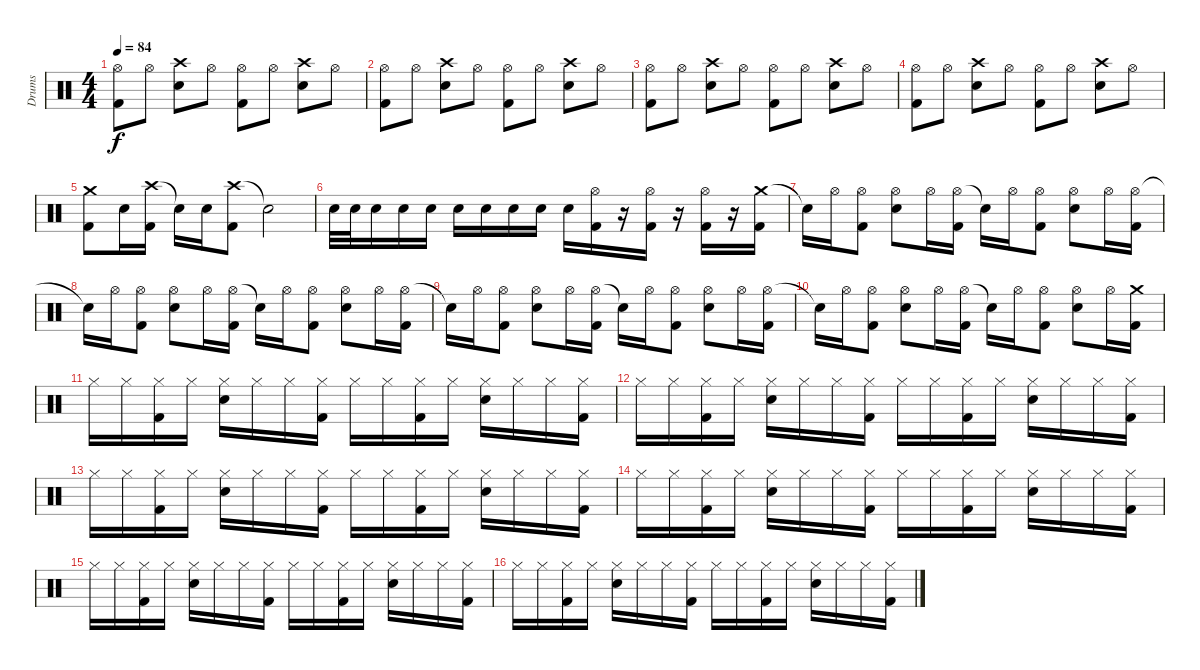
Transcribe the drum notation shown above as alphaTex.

\track ("Drums" "Drums") {instrument percussion}
\staff {score}
\articulation defaults
\ts (4 4)
\tempo 84
\clef neutral
\ks c
("Hi-Hat (open)" "Kick (hit) 2").8{dy f} "Hi-Hat (open)".8 ("Crash high (hit)" "Snare (hit) 2").8 "Hi-Hat (open)".8 ("Hi-Hat (open)" "Kick (hit) 2").8 "Hi-Hat (open)".8 ("Crash high (hit)" "Snare (hit) 2").8 "Hi-Hat (open)".8 |
("Hi-Hat (open)" "Kick (hit) 2").8 "Hi-Hat (open)".8 ("Crash high (hit)" "Snare (hit) 2").8 "Hi-Hat (open)".8 ("Hi-Hat (open)" "Kick (hit) 2").8 "Hi-Hat (open)".8 ("Crash high (hit)" "Snare (hit) 2").8 "Hi-Hat (open)".8 |
("Hi-Hat (open)" "Kick (hit) 2").8 "Hi-Hat (open)".8 ("Crash high (hit)" "Snare (hit) 2").8 "Hi-Hat (open)".8 ("Hi-Hat (open)" "Kick (hit) 2").8 "Hi-Hat (open)".8 ("Crash high (hit)" "Snare (hit) 2").8 "Hi-Hat (open)".8 |
("Hi-Hat (open)" "Kick (hit) 2").8 "Hi-Hat (open)".8 ("Crash high (hit)" "Snare (hit) 2").8 "Hi-Hat (open)".8 ("Hi-Hat (open)" "Kick (hit) 2").8 "Hi-Hat (open)".8 ("Crash high (hit)" "Snare (hit) 2").8 "Hi-Hat (open)".8 |
("Crash medium (hit)" "Kick (hit) 2").8 "Snare (hit) 2".16 ("Crash high (hit)" "Kick (hit) 2").16 "Snare (hit)"{t}.16 "Snare (hit) 2".16 ("Crash high (hit)" "Kick (hit) 2").8 "Snare (hit)"{t}.2 |
"Snare (hit) 2".32 "Snare (hit) 2".32 "Snare (hit) 2".16 "Snare (hit) 2".16 "Snare (hit) 2".16 "Snare (hit) 2".16 "Snare (hit) 2".16 "Snare (hit) 2".16 "Snare (hit) 2".16 "Snare (hit) 2".16 ("Hi-Hat (open)" "Kick (hit) 2").16 r.16 ("Hi-Hat (open)" "Kick (hit) 2").16 r.16 ("Hi-Hat (open)" "Kick (hit) 2").16 r.16 ("Crash medium (hit)" "Kick (hit) 2").16 |
"Snare (hit)"{t}.16 "Hi-Hat (open)".16 ("Hi-Hat (open)" "Kick (hit) 2").8 ("Hi-Hat (open)" "Snare (hit) 2").8 "Hi-Hat (open)".16 ("Hi-Hat (open)" "Kick (hit) 2").16 "Snare (hit)"{t}.16 "Hi-Hat (open)".16 ("Hi-Hat (open)" "Kick (hit) 2").8 ("Hi-Hat (open)" "Snare (hit) 2").8 "Hi-Hat (open)".16 ("Hi-Hat (open)" "Kick (hit) 2").16 |
"Snare (hit)"{t}.16 "Hi-Hat (open)".16 ("Hi-Hat (open)" "Kick (hit) 2").8 ("Hi-Hat (open)" "Snare (hit) 2").8 "Hi-Hat (open)".16 ("Hi-Hat (open)" "Kick (hit) 2").16 "Snare (hit)"{t}.16 "Hi-Hat (open)".16 ("Hi-Hat (open)" "Kick (hit) 2").8 ("Hi-Hat (open)" "Snare (hit) 2").8 "Hi-Hat (open)".16 ("Hi-Hat (open)" "Kick (hit) 2").16 |
"Snare (hit)"{t}.16 "Hi-Hat (open)".16 ("Hi-Hat (open)" "Kick (hit) 2").8 ("Hi-Hat (open)" "Snare (hit) 2").8 "Hi-Hat (open)".16 ("Hi-Hat (open)" "Kick (hit) 2").16 "Snare (hit)"{t}.16 "Hi-Hat (open)".16 ("Hi-Hat (open)" "Kick (hit) 2").8 ("Hi-Hat (open)" "Snare (hit) 2").8 "Hi-Hat (open)".16 ("Hi-Hat (open)" "Kick (hit) 2").16 |
"Snare (hit)"{t}.16 "Hi-Hat (open)".16 ("Hi-Hat (open)" "Kick (hit) 2").8 ("Hi-Hat (open)" "Snare (hit) 2").8 "Hi-Hat (open)".16 ("Hi-Hat (open)" "Kick (hit) 2").16 "Snare (hit)"{t}.16 "Hi-Hat (open)".16 ("Hi-Hat (open)" "Kick (hit) 2").8 ("Hi-Hat (open)" "Snare (hit) 2").8 "Hi-Hat (open)".16 ("Crash medium (hit)" "Kick (hit) 2").16 |
"Hi-Hat (closed)".16 "Hi-Hat (closed)".16 ("Hi-Hat (closed)" "Kick (hit) 2").16 "Hi-Hat (closed)".16 ("Hi-Hat (closed)" "Snare (hit) 2").16 "Hi-Hat (closed)".16 "Hi-Hat (closed)".16 ("Hi-Hat (closed)" "Kick (hit) 2").16 "Hi-Hat (closed)".16 "Hi-Hat (closed)".16 ("Hi-Hat (closed)" "Kick (hit) 2").16 "Hi-Hat (closed)".16 ("Hi-Hat (closed)" "Snare (hit) 2").16 "Hi-Hat (closed)".16 "Hi-Hat (closed)".16 ("Hi-Hat (closed)" "Kick (hit) 2").16 |
"Hi-Hat (closed)".16 "Hi-Hat (closed)".16 ("Hi-Hat (closed)" "Kick (hit) 2").16 "Hi-Hat (closed)".16 ("Hi-Hat (closed)" "Snare (hit) 2").16 "Hi-Hat (closed)".16 "Hi-Hat (closed)".16 ("Hi-Hat (closed)" "Kick (hit) 2").16 "Hi-Hat (closed)".16 "Hi-Hat (closed)".16 ("Hi-Hat (closed)" "Kick (hit) 2").16 "Hi-Hat (closed)".16 ("Hi-Hat (closed)" "Snare (hit) 2").16 "Hi-Hat (closed)".16 "Hi-Hat (closed)".16 ("Hi-Hat (closed)" "Kick (hit) 2").16 |
"Hi-Hat (closed)".16 "Hi-Hat (closed)".16 ("Hi-Hat (closed)" "Kick (hit) 2").16 "Hi-Hat (closed)".16 ("Hi-Hat (closed)" "Snare (hit) 2").16 "Hi-Hat (closed)".16 "Hi-Hat (closed)".16 ("Hi-Hat (closed)" "Kick (hit) 2").16 "Hi-Hat (closed)".16 "Hi-Hat (closed)".16 ("Hi-Hat (closed)" "Kick (hit) 2").16 "Hi-Hat (closed)".16 ("Hi-Hat (closed)" "Snare (hit) 2").16 "Hi-Hat (closed)".16 "Hi-Hat (closed)".16 ("Hi-Hat (closed)" "Kick (hit) 2").16 |
"Hi-Hat (closed)".16 "Hi-Hat (closed)".16 ("Hi-Hat (closed)" "Kick (hit) 2").16 "Hi-Hat (closed)".16 ("Hi-Hat (closed)" "Snare (hit) 2").16 "Hi-Hat (closed)".16 "Hi-Hat (closed)".16 ("Hi-Hat (closed)" "Kick (hit) 2").16 "Hi-Hat (closed)".16 "Hi-Hat (closed)".16 ("Hi-Hat (closed)" "Kick (hit) 2").16 "Hi-Hat (closed)".16 ("Hi-Hat (closed)" "Snare (hit) 2").16 "Hi-Hat (closed)".16 "Hi-Hat (closed)".16 ("Hi-Hat (closed)" "Kick (hit) 2").16 |
"Hi-Hat (closed)".16 "Hi-Hat (closed)".16 ("Hi-Hat (closed)" "Kick (hit) 2").16 "Hi-Hat (closed)".16 ("Hi-Hat (closed)" "Snare (hit) 2").16 "Hi-Hat (closed)".16 "Hi-Hat (closed)".16 ("Hi-Hat (closed)" "Kick (hit) 2").16 "Hi-Hat (closed)".16 "Hi-Hat (closed)".16 ("Hi-Hat (closed)" "Kick (hit) 2").16 "Hi-Hat (closed)".16 ("Hi-Hat (closed)" "Snare (hit) 2").16 "Hi-Hat (closed)".16 "Hi-Hat (closed)".16 ("Hi-Hat (closed)" "Kick (hit) 2").16 |
"Hi-Hat (closed)".16 "Hi-Hat (closed)".16 ("Hi-Hat (closed)" "Kick (hit) 2").16 "Hi-Hat (closed)".16 ("Hi-Hat (closed)" "Snare (hit) 2").16 "Hi-Hat (closed)".16 "Hi-Hat (closed)".16 ("Hi-Hat (closed)" "Kick (hit) 2").16 "Hi-Hat (closed)".16 "Hi-Hat (closed)".16 ("Hi-Hat (closed)" "Kick (hit) 2").16 "Hi-Hat (closed)".16 ("Hi-Hat (closed)" "Snare (hit) 2").16 "Hi-Hat (closed)".16 "Hi-Hat (closed)".16 ("Hi-Hat (closed)" "Kick (hit) 2").16
